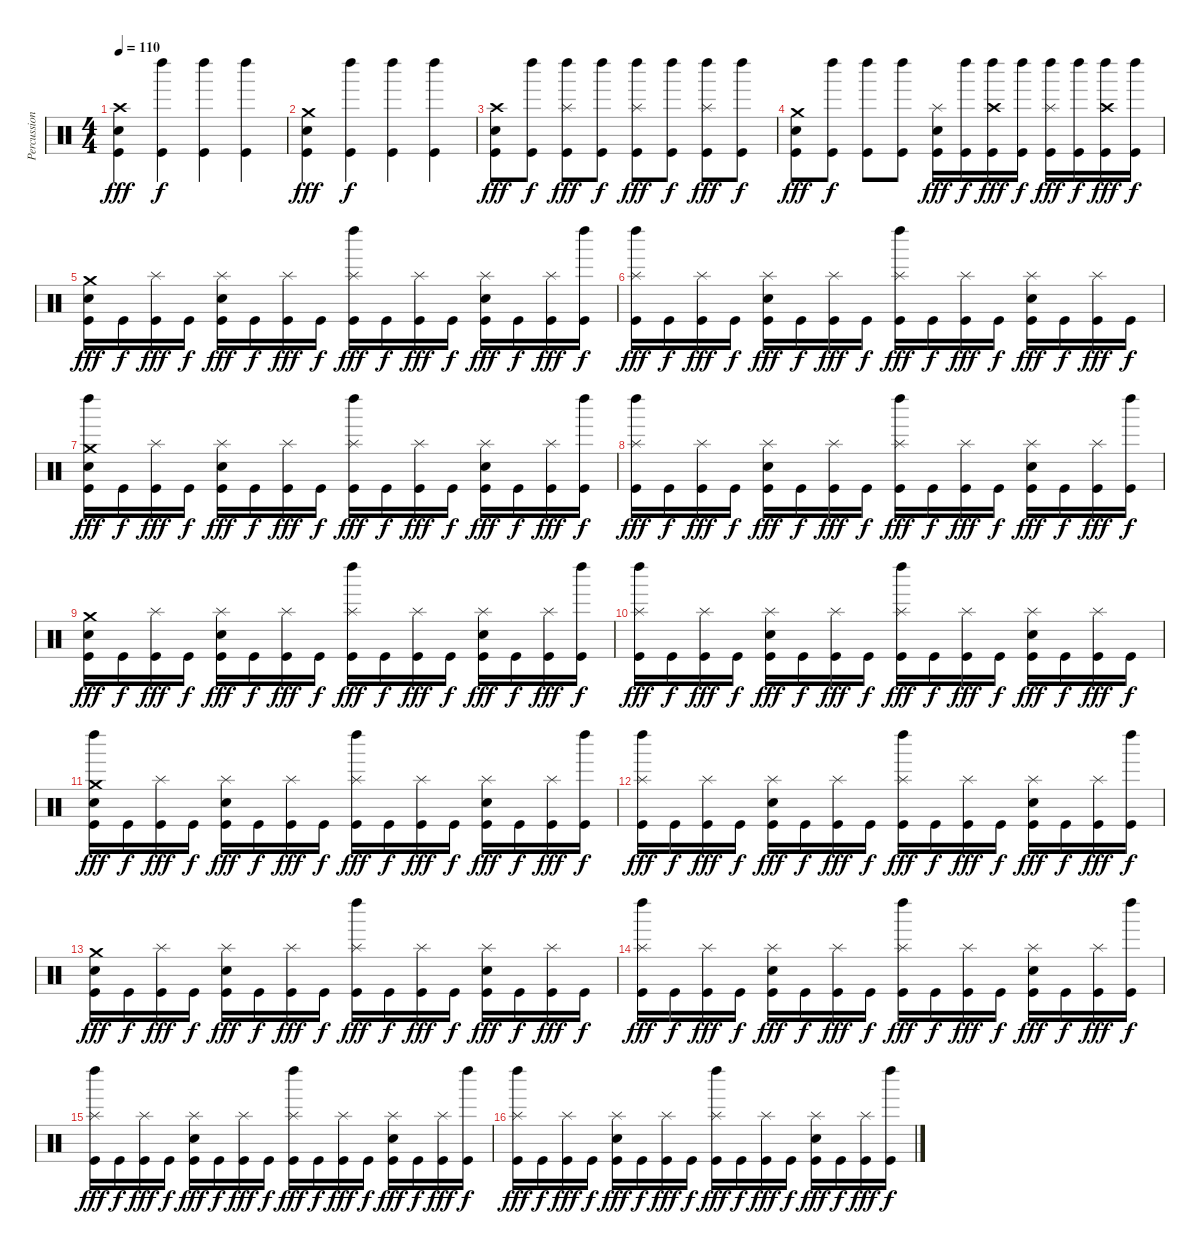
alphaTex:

\track ("Percussions" "Percussion") {instrument percussion}
\staff {score}
\articulation defaults
\ts (4 4)
\tempo 110
\clef neutral
\ks c
("Kick (hit)" "Electric Snare (hit)" "Crash high (hit)").4{dy fff} ("Kick (hit)" "Left Maraca (hit)").4{dy f} ("Kick (hit)" "Left Maraca (hit)").4 ("Kick (hit)" "Left Maraca (hit)").4 |
("Kick (hit)" "Electric Snare (hit)" "Crash medium (hit)").4{dy fff} ("Kick (hit)" "Left Maraca (hit)").4{dy f} ("Kick (hit)" "Left Maraca (hit)").4 ("Kick (hit)" "Left Maraca (hit)").4 |
("Kick (hit)" "Electric Snare (hit)" "Crash high (hit)").8{dy fff} ("Kick (hit)" "Left Maraca (hit)").8{dy f} ("Kick (hit)" "Left Maraca (hit)" "Splash (hit)").8{dy fff} ("Kick (hit)" "Left Maraca (hit)").8{dy f} ("Kick (hit)" "Left Maraca (hit)" "Splash (hit)").8{dy fff} ("Kick (hit)" "Left Maraca (hit)").8{dy f} ("Kick (hit)" "Left Maraca (hit)" "Splash (hit)").8{dy fff} ("Kick (hit)" "Left Maraca (hit)").8{dy f} |
("Kick (hit)" "Electric Snare (hit)" "Crash medium (hit)").8{dy fff} ("Kick (hit)" "Left Maraca (hit)").8{dy f} ("Kick (hit)" "Left Maraca (hit)").8 ("Kick (hit)" "Left Maraca (hit)").8 ("Kick (hit)" "Electric Snare (hit)" "Splash (hit)").16{dy fff} ("Kick (hit)" "Left Maraca (hit)").16{dy f} ("Kick (hit)" "Left Maraca (hit)" "Crash high (hit)").16{dy fff} ("Kick (hit)" "Left Maraca (hit)").16{dy f} ("Kick (hit)" "Left Maraca (hit)" "Splash (hit)").16{dy fff} ("Kick (hit)" "Left Maraca (hit)").16{dy f} ("Kick (hit)" "Left Maraca (hit)" "Crash high (hit)").16{dy fff} ("Kick (hit)" "Left Maraca (hit)").16{dy f} |
("Kick (hit)" "Electric Snare (hit)" "Crash medium (hit)").16{dy fff} "Kick (hit)".16{dy f} ("Kick (hit)" "Splash (hit)").16{dy fff} "Kick (hit)".16{dy f} ("Kick (hit)" "Electric Snare (hit)" "Splash (hit)").16{dy fff} "Kick (hit)".16{dy f} ("Kick (hit)" "Splash (hit)").16{dy fff} "Kick (hit)".16{dy f} ("Kick (hit)" "Left Maraca (hit)" "Splash (hit)").16{dy fff} "Kick (hit)".16{dy f} ("Kick (hit)" "Splash (hit)").16{dy fff} "Kick (hit)".16{dy f} ("Kick (hit)" "Electric Snare (hit)" "Splash (hit)").16{dy fff} "Kick (hit)".16{dy f} ("Kick (hit)" "Splash (hit)").16{dy fff} ("Kick (hit)" "Left Maraca (hit)").16{dy f} |
("Kick (hit)" "Left Maraca (hit)" "Splash (hit)").16{dy fff} "Kick (hit)".16{dy f} ("Kick (hit)" "Splash (hit)").16{dy fff} "Kick (hit)".16{dy f} ("Kick (hit)" "Electric Snare (hit)" "Splash (hit)").16{dy fff} "Kick (hit)".16{dy f} ("Kick (hit)" "Splash (hit)").16{dy fff} "Kick (hit)".16{dy f} ("Kick (hit)" "Left Maraca (hit)" "Splash (hit)").16{dy fff} "Kick (hit)".16{dy f} ("Kick (hit)" "Splash (hit)").16{dy fff} "Kick (hit)".16{dy f} ("Kick (hit)" "Electric Snare (hit)" "Splash (hit)").16{dy fff} "Kick (hit)".16{dy f} ("Kick (hit)" "Splash (hit)").16{dy fff} "Kick (hit)".16{dy f} |
("Kick (hit)" "Left Maraca (hit)" "Electric Snare (hit)" "Crash medium (hit)").16{dy fff} "Kick (hit)".16{dy f} ("Kick (hit)" "Splash (hit)").16{dy fff} "Kick (hit)".16{dy f} ("Kick (hit)" "Electric Snare (hit)" "Splash (hit)").16{dy fff} "Kick (hit)".16{dy f} ("Kick (hit)" "Splash (hit)").16{dy fff} "Kick (hit)".16{dy f} ("Kick (hit)" "Left Maraca (hit)" "Splash (hit)").16{dy fff} "Kick (hit)".16{dy f} ("Kick (hit)" "Splash (hit)").16{dy fff} "Kick (hit)".16{dy f} ("Kick (hit)" "Electric Snare (hit)" "Splash (hit)").16{dy fff} "Kick (hit)".16{dy f} ("Kick (hit)" "Splash (hit)").16{dy fff} ("Kick (hit)" "Left Maraca (hit)").16{dy f} |
("Kick (hit)" "Left Maraca (hit)" "Splash (hit)").16{dy fff} "Kick (hit)".16{dy f} ("Kick (hit)" "Splash (hit)").16{dy fff} "Kick (hit)".16{dy f} ("Kick (hit)" "Electric Snare (hit)" "Splash (hit)").16{dy fff} "Kick (hit)".16{dy f} ("Kick (hit)" "Splash (hit)").16{dy fff} "Kick (hit)".16{dy f} ("Kick (hit)" "Left Maraca (hit)" "Splash (hit)").16{dy fff} "Kick (hit)".16{dy f} ("Kick (hit)" "Splash (hit)").16{dy fff} "Kick (hit)".16{dy f} ("Kick (hit)" "Electric Snare (hit)" "Splash (hit)").16{dy fff} "Kick (hit)".16{dy f} ("Kick (hit)" "Splash (hit)").16{dy fff} ("Kick (hit)" "Left Maraca (hit)").16{dy f} |
("Kick (hit)" "Electric Snare (hit)" "Crash medium (hit)").16{dy fff} "Kick (hit)".16{dy f} ("Kick (hit)" "Splash (hit)").16{dy fff} "Kick (hit)".16{dy f} ("Kick (hit)" "Electric Snare (hit)" "Splash (hit)").16{dy fff} "Kick (hit)".16{dy f} ("Kick (hit)" "Splash (hit)").16{dy fff} "Kick (hit)".16{dy f} ("Kick (hit)" "Left Maraca (hit)" "Splash (hit)").16{dy fff} "Kick (hit)".16{dy f} ("Kick (hit)" "Splash (hit)").16{dy fff} "Kick (hit)".16{dy f} ("Kick (hit)" "Electric Snare (hit)" "Splash (hit)").16{dy fff} "Kick (hit)".16{dy f} ("Kick (hit)" "Splash (hit)").16{dy fff} ("Kick (hit)" "Left Maraca (hit)").16{dy f} |
("Kick (hit)" "Left Maraca (hit)" "Splash (hit)").16{dy fff} "Kick (hit)".16{dy f} ("Kick (hit)" "Splash (hit)").16{dy fff} "Kick (hit)".16{dy f} ("Kick (hit)" "Electric Snare (hit)" "Splash (hit)").16{dy fff} "Kick (hit)".16{dy f} ("Kick (hit)" "Splash (hit)").16{dy fff} "Kick (hit)".16{dy f} ("Kick (hit)" "Left Maraca (hit)" "Splash (hit)").16{dy fff} "Kick (hit)".16{dy f} ("Kick (hit)" "Splash (hit)").16{dy fff} "Kick (hit)".16{dy f} ("Kick (hit)" "Electric Snare (hit)" "Splash (hit)").16{dy fff} "Kick (hit)".16{dy f} ("Kick (hit)" "Splash (hit)").16{dy fff} "Kick (hit)".16{dy f} |
("Kick (hit)" "Left Maraca (hit)" "Electric Snare (hit)" "Crash medium (hit)").16{dy fff} "Kick (hit)".16{dy f} ("Kick (hit)" "Splash (hit)").16{dy fff} "Kick (hit)".16{dy f} ("Kick (hit)" "Electric Snare (hit)" "Splash (hit)").16{dy fff} "Kick (hit)".16{dy f} ("Kick (hit)" "Splash (hit)").16{dy fff} "Kick (hit)".16{dy f} ("Kick (hit)" "Left Maraca (hit)" "Splash (hit)").16{dy fff} "Kick (hit)".16{dy f} ("Kick (hit)" "Splash (hit)").16{dy fff} "Kick (hit)".16{dy f} ("Kick (hit)" "Electric Snare (hit)" "Splash (hit)").16{dy fff} "Kick (hit)".16{dy f} ("Kick (hit)" "Splash (hit)").16{dy fff} ("Kick (hit)" "Left Maraca (hit)").16{dy f} |
("Kick (hit)" "Left Maraca (hit)" "Splash (hit)").16{dy fff} "Kick (hit)".16{dy f} ("Kick (hit)" "Splash (hit)").16{dy fff} "Kick (hit)".16{dy f} ("Kick (hit)" "Electric Snare (hit)" "Splash (hit)").16{dy fff} "Kick (hit)".16{dy f} ("Kick (hit)" "Splash (hit)").16{dy fff} "Kick (hit)".16{dy f} ("Kick (hit)" "Left Maraca (hit)" "Splash (hit)").16{dy fff} "Kick (hit)".16{dy f} ("Kick (hit)" "Splash (hit)").16{dy fff} "Kick (hit)".16{dy f} ("Kick (hit)" "Electric Snare (hit)" "Splash (hit)").16{dy fff} "Kick (hit)".16{dy f} ("Kick (hit)" "Splash (hit)").16{dy fff} ("Kick (hit)" "Left Maraca (hit)").16{dy f} |
("Kick (hit)" "Electric Snare (hit)" "Crash medium (hit)").16{dy fff} "Kick (hit)".16{dy f} ("Kick (hit)" "Splash (hit)").16{dy fff} "Kick (hit)".16{dy f} ("Kick (hit)" "Electric Snare (hit)" "Splash (hit)").16{dy fff} "Kick (hit)".16{dy f} ("Kick (hit)" "Splash (hit)").16{dy fff} "Kick (hit)".16{dy f} ("Kick (hit)" "Left Maraca (hit)" "Splash (hit)").16{dy fff} "Kick (hit)".16{dy f} ("Kick (hit)" "Splash (hit)").16{dy fff} "Kick (hit)".16{dy f} ("Kick (hit)" "Electric Snare (hit)" "Splash (hit)").16{dy fff} "Kick (hit)".16{dy f} ("Kick (hit)" "Splash (hit)").16{dy fff} "Kick (hit)".16{dy f} |
("Kick (hit)" "Left Maraca (hit)" "Splash (hit)").16{dy fff} "Kick (hit)".16{dy f} ("Kick (hit)" "Splash (hit)").16{dy fff} "Kick (hit)".16{dy f} ("Kick (hit)" "Electric Snare (hit)" "Splash (hit)").16{dy fff} "Kick (hit)".16{dy f} ("Kick (hit)" "Splash (hit)").16{dy fff} "Kick (hit)".16{dy f} ("Kick (hit)" "Left Maraca (hit)" "Splash (hit)").16{dy fff} "Kick (hit)".16{dy f} ("Kick (hit)" "Splash (hit)").16{dy fff} "Kick (hit)".16{dy f} ("Kick (hit)" "Electric Snare (hit)" "Splash (hit)").16{dy fff} "Kick (hit)".16{dy f} ("Kick (hit)" "Splash (hit)").16{dy fff} ("Kick (hit)" "Left Maraca (hit)").16{dy f} |
("Kick (hit)" "Left Maraca (hit)" "Splash (hit)").16{dy fff} "Kick (hit)".16{dy f} ("Kick (hit)" "Splash (hit)").16{dy fff} "Kick (hit)".16{dy f} ("Kick (hit)" "Electric Snare (hit)" "Splash (hit)").16{dy fff} "Kick (hit)".16{dy f} ("Kick (hit)" "Splash (hit)").16{dy fff} "Kick (hit)".16{dy f} ("Kick (hit)" "Left Maraca (hit)" "Splash (hit)").16{dy fff} "Kick (hit)".16{dy f} ("Kick (hit)" "Splash (hit)").16{dy fff} "Kick (hit)".16{dy f} ("Kick (hit)" "Electric Snare (hit)" "Splash (hit)").16{dy fff} "Kick (hit)".16{dy f} ("Kick (hit)" "Splash (hit)").16{dy fff} ("Kick (hit)" "Left Maraca (hit)").16{dy f} |
("Kick (hit)" "Left Maraca (hit)" "Splash (hit)").16{dy fff} "Kick (hit)".16{dy f} ("Kick (hit)" "Splash (hit)").16{dy fff} "Kick (hit)".16{dy f} ("Kick (hit)" "Electric Snare (hit)" "Splash (hit)").16{dy fff} "Kick (hit)".16{dy f} ("Kick (hit)" "Splash (hit)").16{dy fff} "Kick (hit)".16{dy f} ("Kick (hit)" "Left Maraca (hit)" "Splash (hit)").16{dy fff} "Kick (hit)".16{dy f} ("Kick (hit)" "Splash (hit)").16{dy fff} "Kick (hit)".16{dy f} ("Kick (hit)" "Electric Snare (hit)" "Splash (hit)").16{dy fff} "Kick (hit)".16{dy f} ("Kick (hit)" "Splash (hit)").16{dy fff} ("Kick (hit)" "Left Maraca (hit)").16{dy f}
